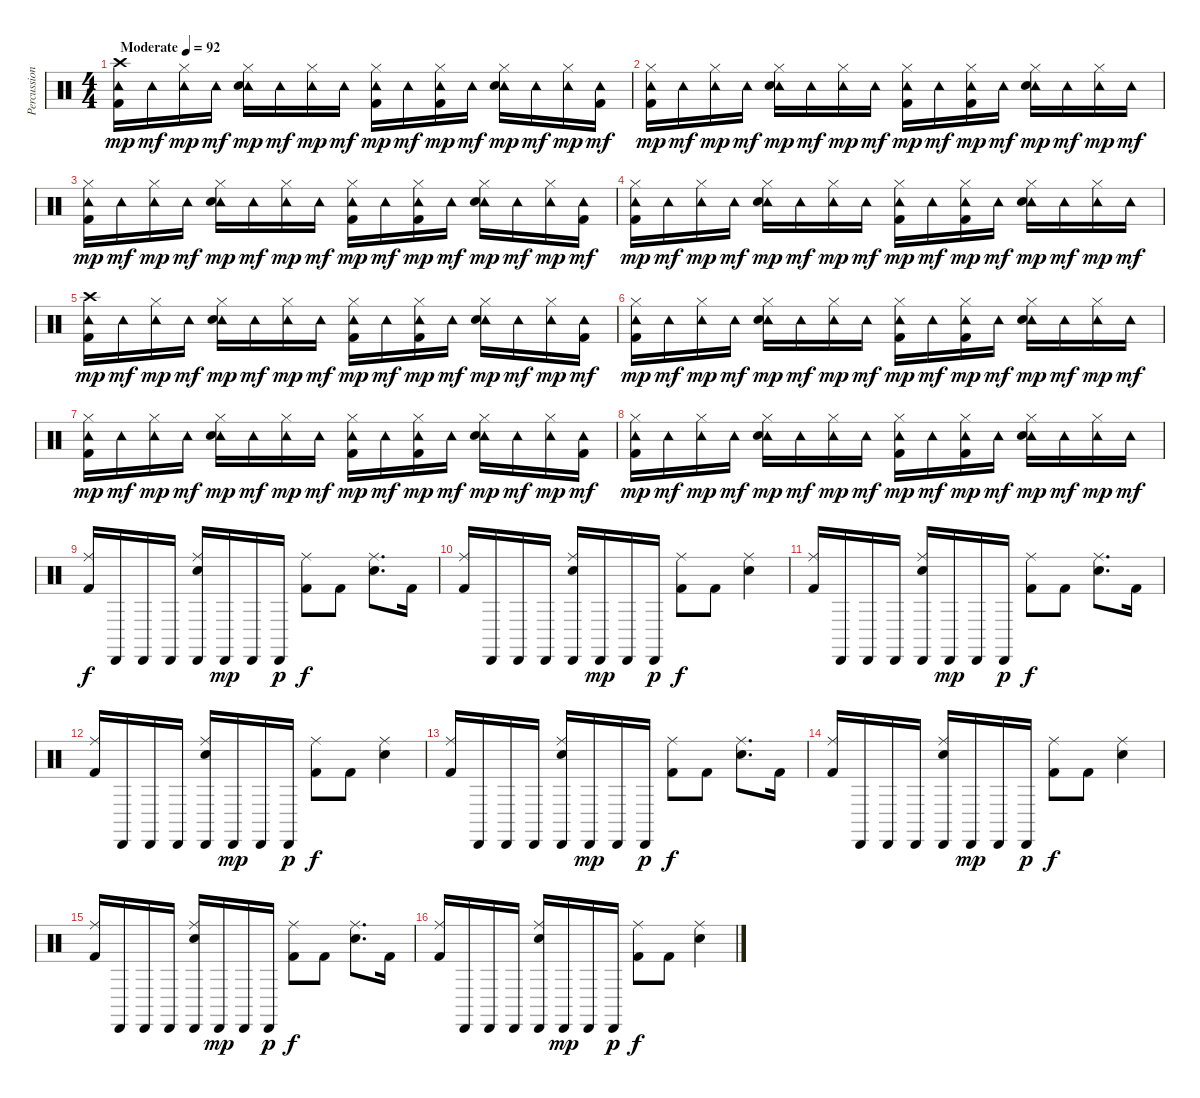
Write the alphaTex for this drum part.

\track ("Percussion" "Percussion") {instrument percussion}
\staff {score}
\articulation defaults
\ts (4 4)
\tempo (92 "Moderate")
\clef neutral
\ks c
("Tambourine (hit)" "Crash high (hit)" "Kick (hit) 2").16{dy mp} "Tambourine (hit)".16{dy mf} ("Tambourine (hit)" "Hi-Hat (closed)").16{dy mp} "Tambourine (hit)".16{dy mf} ("Tambourine (hit)" "Hi-Hat (closed)" "Electric Snare (hit)").16{dy mp} "Tambourine (hit)".16{dy mf} ("Tambourine (hit)" "Hi-Hat (closed)").16{dy mp} "Tambourine (hit)".16{dy mf} ("Tambourine (hit)" "Hi-Hat (closed)" "Kick (hit) 2").16{dy mp} "Tambourine (hit)".16{dy mf} ("Tambourine (hit)" "Hi-Hat (closed)" "Kick (hit) 2").16{dy mp} "Tambourine (hit)".16{dy mf} ("Tambourine (hit)" "Hi-Hat (closed)" "Electric Snare (hit)").16{dy mp} "Tambourine (hit)".16{dy mf} ("Tambourine (hit)" "Hi-Hat (closed)").16{dy mp} ("Tambourine (hit)" "Kick (hit) 2").16{dy mf} |
("Tambourine (hit)" "Hi-Hat (closed)" "Kick (hit) 2").16{dy mp} "Tambourine (hit)".16{dy mf} ("Tambourine (hit)" "Hi-Hat (closed)").16{dy mp} "Tambourine (hit)".16{dy mf} ("Tambourine (hit)" "Hi-Hat (closed)" "Electric Snare (hit)").16{dy mp} "Tambourine (hit)".16{dy mf} ("Tambourine (hit)" "Hi-Hat (closed)").16{dy mp} "Tambourine (hit)".16{dy mf} ("Tambourine (hit)" "Hi-Hat (closed)" "Kick (hit) 2").16{dy mp} "Tambourine (hit)".16{dy mf} ("Tambourine (hit)" "Hi-Hat (closed)" "Kick (hit) 2").16{dy mp} "Tambourine (hit)".16{dy mf} ("Tambourine (hit)" "Hi-Hat (closed)" "Electric Snare (hit)").16{dy mp} "Tambourine (hit)".16{dy mf} ("Tambourine (hit)" "Hi-Hat (closed)").16{dy mp} "Tambourine (hit)".16{dy mf} |
("Tambourine (hit)" "Hi-Hat (closed)" "Kick (hit) 2").16{dy mp} "Tambourine (hit)".16{dy mf} ("Tambourine (hit)" "Hi-Hat (closed)").16{dy mp} "Tambourine (hit)".16{dy mf} ("Tambourine (hit)" "Hi-Hat (closed)" "Electric Snare (hit)").16{dy mp} "Tambourine (hit)".16{dy mf} ("Tambourine (hit)" "Hi-Hat (closed)").16{dy mp} "Tambourine (hit)".16{dy mf} ("Tambourine (hit)" "Hi-Hat (closed)" "Kick (hit) 2").16{dy mp} "Tambourine (hit)".16{dy mf} ("Tambourine (hit)" "Hi-Hat (closed)" "Kick (hit) 2").16{dy mp} "Tambourine (hit)".16{dy mf} ("Tambourine (hit)" "Hi-Hat (closed)" "Electric Snare (hit)").16{dy mp} "Tambourine (hit)".16{dy mf} ("Tambourine (hit)" "Hi-Hat (closed)").16{dy mp} ("Tambourine (hit)" "Kick (hit) 2").16{dy mf} |
("Tambourine (hit)" "Hi-Hat (closed)" "Kick (hit) 2").16{dy mp} "Tambourine (hit)".16{dy mf} ("Tambourine (hit)" "Hi-Hat (closed)").16{dy mp} "Tambourine (hit)".16{dy mf} ("Tambourine (hit)" "Hi-Hat (closed)" "Electric Snare (hit)").16{dy mp} "Tambourine (hit)".16{dy mf} ("Tambourine (hit)" "Hi-Hat (closed)").16{dy mp} "Tambourine (hit)".16{dy mf} ("Tambourine (hit)" "Hi-Hat (closed)" "Kick (hit) 2").16{dy mp} "Tambourine (hit)".16{dy mf} ("Tambourine (hit)" "Hi-Hat (closed)" "Kick (hit) 2").16{dy mp} "Tambourine (hit)".16{dy mf} ("Tambourine (hit)" "Hi-Hat (closed)" "Electric Snare (hit)").16{dy mp} "Tambourine (hit)".16{dy mf} ("Tambourine (hit)" "Hi-Hat (closed)").16{dy mp} "Tambourine (hit)".16{dy mf} |
("Tambourine (hit)" "Crash high (hit)" "Kick (hit) 2").16{dy mp} "Tambourine (hit)".16{dy mf} ("Tambourine (hit)" "Hi-Hat (closed)").16{dy mp} "Tambourine (hit)".16{dy mf} ("Tambourine (hit)" "Hi-Hat (closed)" "Electric Snare (hit)").16{dy mp} "Tambourine (hit)".16{dy mf} ("Tambourine (hit)" "Hi-Hat (closed)").16{dy mp} "Tambourine (hit)".16{dy mf} ("Tambourine (hit)" "Hi-Hat (closed)" "Kick (hit) 2").16{dy mp} "Tambourine (hit)".16{dy mf} ("Tambourine (hit)" "Hi-Hat (closed)" "Kick (hit) 2").16{dy mp} "Tambourine (hit)".16{dy mf} ("Tambourine (hit)" "Hi-Hat (closed)" "Electric Snare (hit)").16{dy mp} "Tambourine (hit)".16{dy mf} ("Tambourine (hit)" "Hi-Hat (closed)").16{dy mp} ("Tambourine (hit)" "Kick (hit) 2").16{dy mf} |
("Tambourine (hit)" "Hi-Hat (closed)" "Kick (hit) 2").16{dy mp} "Tambourine (hit)".16{dy mf} ("Tambourine (hit)" "Hi-Hat (closed)").16{dy mp} "Tambourine (hit)".16{dy mf} ("Tambourine (hit)" "Hi-Hat (closed)" "Electric Snare (hit)").16{dy mp} "Tambourine (hit)".16{dy mf} ("Tambourine (hit)" "Hi-Hat (closed)").16{dy mp} "Tambourine (hit)".16{dy mf} ("Tambourine (hit)" "Hi-Hat (closed)" "Kick (hit) 2").16{dy mp} "Tambourine (hit)".16{dy mf} ("Tambourine (hit)" "Hi-Hat (closed)" "Kick (hit) 2").16{dy mp} "Tambourine (hit)".16{dy mf} ("Tambourine (hit)" "Hi-Hat (closed)" "Electric Snare (hit)").16{dy mp} "Tambourine (hit)".16{dy mf} ("Tambourine (hit)" "Hi-Hat (closed)").16{dy mp} "Tambourine (hit)".16{dy mf} |
("Tambourine (hit)" "Hi-Hat (closed)" "Kick (hit) 2").16{dy mp} "Tambourine (hit)".16{dy mf} ("Tambourine (hit)" "Hi-Hat (closed)").16{dy mp} "Tambourine (hit)".16{dy mf} ("Tambourine (hit)" "Hi-Hat (closed)" "Electric Snare (hit)").16{dy mp} "Tambourine (hit)".16{dy mf} ("Tambourine (hit)" "Hi-Hat (closed)").16{dy mp} "Tambourine (hit)".16{dy mf} ("Tambourine (hit)" "Hi-Hat (closed)" "Kick (hit) 2").16{dy mp} "Tambourine (hit)".16{dy mf} ("Tambourine (hit)" "Hi-Hat (closed)" "Kick (hit) 2").16{dy mp} "Tambourine (hit)".16{dy mf} ("Tambourine (hit)" "Hi-Hat (closed)" "Electric Snare (hit)").16{dy mp} "Tambourine (hit)".16{dy mf} ("Tambourine (hit)" "Hi-Hat (closed)").16{dy mp} ("Tambourine (hit)" "Kick (hit) 2").16{dy mf} |
("Tambourine (hit)" "Hi-Hat (closed)" "Kick (hit) 2").16{dy mp} "Tambourine (hit)".16{dy mf} ("Tambourine (hit)" "Hi-Hat (closed)").16{dy mp} "Tambourine (hit)".16{dy mf} ("Tambourine (hit)" "Hi-Hat (closed)" "Electric Snare (hit)").16{dy mp} "Tambourine (hit)".16{dy mf} ("Tambourine (hit)" "Hi-Hat (closed)").16{dy mp} "Tambourine (hit)".16{dy mf} ("Tambourine (hit)" "Hi-Hat (closed)" "Kick (hit) 2").16{dy mp} "Tambourine (hit)".16{dy mf} ("Tambourine (hit)" "Hi-Hat (closed)" "Kick (hit) 2").16{dy mp} "Tambourine (hit)".16{dy mf} ("Tambourine (hit)" "Hi-Hat (closed)" "Electric Snare (hit)").16{dy mp} "Tambourine (hit)".16{dy mf} ("Tambourine (hit)" "Hi-Hat (closed)").16{dy mp} "Tambourine (hit)".16{dy mf} |
("Ride (middle)" "Kick (hit) 2").16{dy f} "Cabasa (hit)".16 "Cabasa (hit)".16 "Cabasa (hit)".16 ("Cabasa (hit)" "Ride (middle)" "Electric Snare (hit)").16 "Cabasa (hit)".16{dy mp} "Cabasa (hit)".16 "Cabasa (hit)".16{dy p} ("Ride (middle)" "Kick (hit) 2").8{dy f} "Kick (hit) 2".8 ("Ride (middle)" "Electric Snare (hit)").8{d} "Kick (hit) 2".16 |
("Ride (middle)" "Kick (hit) 2").16 "Cabasa (hit)".16 "Cabasa (hit)".16 "Cabasa (hit)".16 ("Cabasa (hit)" "Ride (middle)" "Electric Snare (hit)").16 "Cabasa (hit)".16{dy mp} "Cabasa (hit)".16 "Cabasa (hit)".16{dy p} ("Ride (middle)" "Kick (hit) 2").8{dy f} "Kick (hit) 2".8 ("Ride (middle)" "Electric Snare (hit)").4 |
("Ride (middle)" "Kick (hit) 2").16 "Cabasa (hit)".16 "Cabasa (hit)".16 "Cabasa (hit)".16 ("Cabasa (hit)" "Ride (middle)" "Electric Snare (hit)").16 "Cabasa (hit)".16{dy mp} "Cabasa (hit)".16 "Cabasa (hit)".16{dy p} ("Ride (middle)" "Kick (hit) 2").8{dy f} "Kick (hit) 2".8 ("Ride (middle)" "Electric Snare (hit)").8{d} "Kick (hit) 2".16 |
("Ride (middle)" "Kick (hit) 2").16 "Cabasa (hit)".16 "Cabasa (hit)".16 "Cabasa (hit)".16 ("Cabasa (hit)" "Ride (middle)" "Electric Snare (hit)").16 "Cabasa (hit)".16{dy mp} "Cabasa (hit)".16 "Cabasa (hit)".16{dy p} ("Ride (middle)" "Kick (hit) 2").8{dy f} "Kick (hit) 2".8 ("Ride (middle)" "Electric Snare (hit)").4 |
("Ride (middle)" "Kick (hit) 2").16 "Cabasa (hit)".16 "Cabasa (hit)".16 "Cabasa (hit)".16 ("Cabasa (hit)" "Ride (middle)" "Electric Snare (hit)").16 "Cabasa (hit)".16{dy mp} "Cabasa (hit)".16 "Cabasa (hit)".16{dy p} ("Ride (middle)" "Kick (hit) 2").8{dy f} "Kick (hit) 2".8 ("Ride (middle)" "Electric Snare (hit)").8{d} "Kick (hit) 2".16 |
("Ride (middle)" "Kick (hit) 2").16 "Cabasa (hit)".16 "Cabasa (hit)".16 "Cabasa (hit)".16 ("Cabasa (hit)" "Ride (middle)" "Electric Snare (hit)").16 "Cabasa (hit)".16{dy mp} "Cabasa (hit)".16 "Cabasa (hit)".16{dy p} ("Ride (middle)" "Kick (hit) 2").8{dy f} "Kick (hit) 2".8 ("Ride (middle)" "Electric Snare (hit)").4 |
("Ride (middle)" "Kick (hit) 2").16 "Cabasa (hit)".16 "Cabasa (hit)".16 "Cabasa (hit)".16 ("Cabasa (hit)" "Ride (middle)" "Electric Snare (hit)").16 "Cabasa (hit)".16{dy mp} "Cabasa (hit)".16 "Cabasa (hit)".16{dy p} ("Ride (middle)" "Kick (hit) 2").8{dy f} "Kick (hit) 2".8 ("Ride (middle)" "Electric Snare (hit)").8{d} "Kick (hit) 2".16 |
("Ride (middle)" "Kick (hit) 2").16 "Cabasa (hit)".16 "Cabasa (hit)".16 "Cabasa (hit)".16 ("Cabasa (hit)" "Ride (middle)" "Electric Snare (hit)").16 "Cabasa (hit)".16{dy mp} "Cabasa (hit)".16 "Cabasa (hit)".16{dy p} ("Ride (middle)" "Kick (hit) 2").8{dy f} "Kick (hit) 2".8 ("Ride (middle)" "Electric Snare (hit)").4
